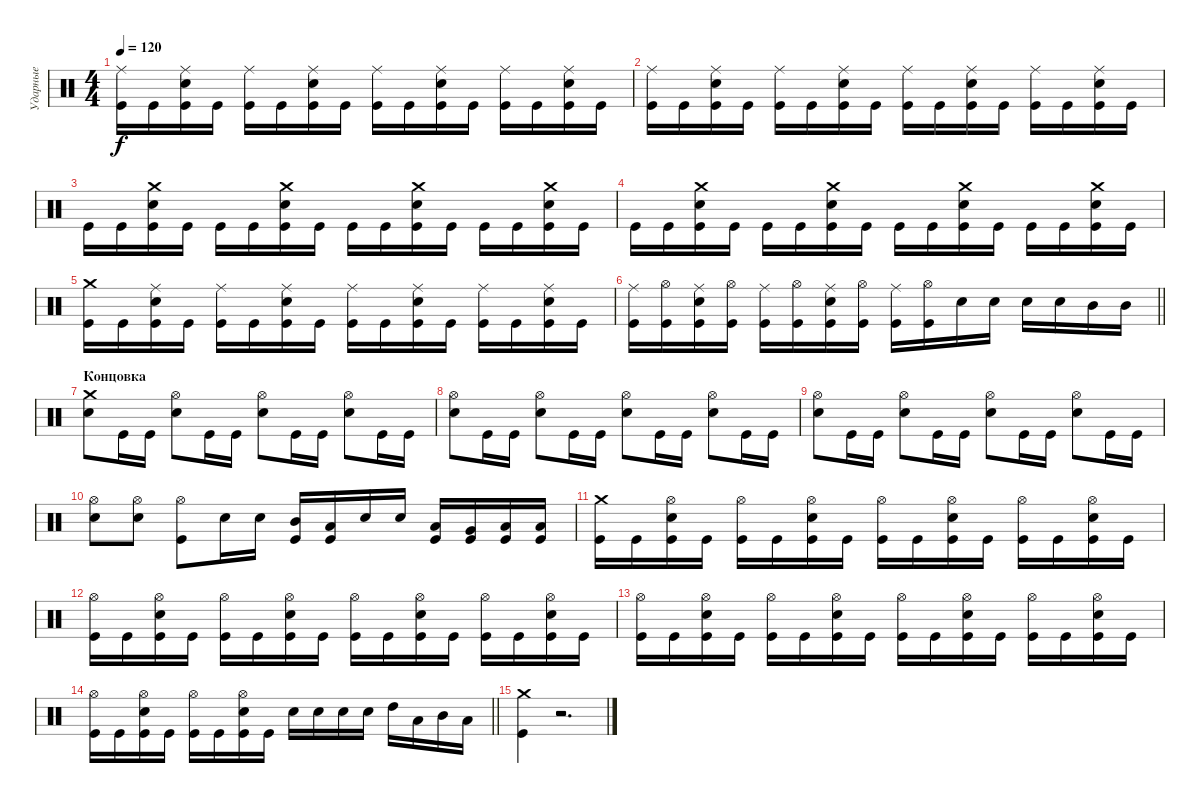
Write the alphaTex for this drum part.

\track ("Ударные" "Ударные") {instrument percussion}
\staff {score}
\articulation defaults
\ts (4 4)
\tempo 120
\clef neutral
\ks c
("Kick (hit)" "Ride (middle)").16{dy f} "Kick (hit)".16 ("Kick (hit)" "Snare (hit) 2" "Ride (middle)").16 "Kick (hit)".16 ("Kick (hit)" "Ride (middle)").16 "Kick (hit)".16 ("Kick (hit)" "Snare (hit) 2" "Ride (middle)").16 "Kick (hit)".16 ("Kick (hit)" "Ride (middle)").16 "Kick (hit)".16 ("Kick (hit)" "Snare (hit) 2" "Ride (middle)").16 "Kick (hit)".16 ("Kick (hit)" "Ride (middle)").16 "Kick (hit)".16 ("Kick (hit)" "Snare (hit) 2" "Ride (middle)").16 "Kick (hit)".16 |
("Kick (hit)" "Ride (middle)").16 "Kick (hit)".16 ("Kick (hit)" "Snare (hit) 2" "Ride (middle)").16 "Kick (hit)".16 ("Kick (hit)" "Ride (middle)").16 "Kick (hit)".16 ("Kick (hit)" "Snare (hit) 2" "Ride (middle)").16 "Kick (hit)".16 ("Kick (hit)" "Ride (middle)").16 "Kick (hit)".16 ("Kick (hit)" "Snare (hit) 2" "Ride (middle)").16 "Kick (hit)".16 ("Kick (hit)" "Ride (middle)").16 "Kick (hit)".16 ("Kick (hit)" "Snare (hit) 2" "Ride (middle)").16 "Kick (hit)".16 |
"Kick (hit)".16 "Kick (hit)".16 ("Kick (hit)" "Snare (hit) 2" "Crash medium (hit)").16 "Kick (hit)".16 "Kick (hit)".16 "Kick (hit)".16 ("Kick (hit)" "Snare (hit) 2" "Crash medium (hit)").16 "Kick (hit)".16 "Kick (hit)".16 "Kick (hit)".16 ("Kick (hit)" "Snare (hit) 2" "Crash medium (hit)").16 "Kick (hit)".16 "Kick (hit)".16 "Kick (hit)".16 ("Kick (hit)" "Snare (hit) 2" "Crash medium (hit)").16 "Kick (hit)".16 |
"Kick (hit)".16 "Kick (hit)".16 ("Kick (hit)" "Snare (hit) 2" "Crash medium (hit)").16 "Kick (hit)".16 "Kick (hit)".16 "Kick (hit)".16 ("Kick (hit)" "Snare (hit) 2" "Crash medium (hit)").16 "Kick (hit)".16 "Kick (hit)".16 "Kick (hit)".16 ("Kick (hit)" "Snare (hit) 2" "Crash medium (hit)").16 "Kick (hit)".16 "Kick (hit)".16 "Kick (hit)".16 ("Kick (hit)" "Snare (hit) 2" "Crash medium (hit)").16 "Kick (hit)".16 |
("Kick (hit)" "Crash medium (hit)").16 "Kick (hit)".16 ("Kick (hit)" "Snare (hit) 2" "Ride (middle)").16 "Kick (hit)".16 ("Kick (hit)" "Ride (middle)").16 "Kick (hit)".16 ("Kick (hit)" "Snare (hit) 2" "Ride (middle)").16 "Kick (hit)".16 ("Kick (hit)" "Ride (middle)").16 "Kick (hit)".16 ("Kick (hit)" "Snare (hit) 2" "Ride (middle)").16 "Kick (hit)".16 ("Kick (hit)" "Ride (middle)").16 "Kick (hit)".16 ("Kick (hit)" "Snare (hit) 2" "Ride (middle)").16 "Kick (hit)".16 |
\barLineRight lightlight
("Kick (hit)" "Ride (middle)").16 ("Kick (hit)" "Hi-Hat (open)").16 ("Kick (hit)" "Snare (hit) 2" "Ride (middle)").16 ("Kick (hit)" "Hi-Hat (open)").16 ("Kick (hit)" "Ride (middle)").16 ("Kick (hit)" "Hi-Hat (open)").16 ("Kick (hit)" "Snare (hit) 2" "Ride (middle)").16 ("Kick (hit)" "Hi-Hat (open)").16 ("Kick (hit)" "Ride (middle)").16 ("Kick (hit)" "Hi-Hat (open)").16 "Snare (hit) 2".16 "Snare (hit) 2".16 "Snare (hit) 2".16 "Snare (hit) 2".16 "Mid Tom (hit)".16 "Mid Tom (hit)".16 |
\section ("" "Концовка")
("Snare (hit) 2" "Crash medium (hit)").8 "Kick (hit)".16 "Kick (hit)".16 ("Snare (hit) 2" "Hi-Hat (open)").8 "Kick (hit)".16 "Kick (hit)".16 ("Snare (hit) 2" "Hi-Hat (open)").8 "Kick (hit)".16 "Kick (hit)".16 ("Snare (hit) 2" "Hi-Hat (open)").8 "Kick (hit)".16 "Kick (hit)".16 |
("Snare (hit) 2" "Hi-Hat (open)").8 "Kick (hit)".16 "Kick (hit)".16 ("Snare (hit) 2" "Hi-Hat (open)").8 "Kick (hit)".16 "Kick (hit)".16 ("Snare (hit) 2" "Hi-Hat (open)").8 "Kick (hit)".16 "Kick (hit)".16 ("Snare (hit) 2" "Hi-Hat (open)").8 "Kick (hit)".16 "Kick (hit)".16 |
("Snare (hit) 2" "Hi-Hat (open)").8 "Kick (hit)".16 "Kick (hit)".16 ("Snare (hit) 2" "Hi-Hat (open)").8 "Kick (hit)".16 "Kick (hit)".16 ("Snare (hit) 2" "Hi-Hat (open)").8 "Kick (hit)".16 "Kick (hit)".16 ("Snare (hit) 2" "Hi-Hat (open)").8 "Kick (hit)".16 "Kick (hit)".16 |
("Snare (hit) 2" "Hi-Hat (open)").8 ("Snare (hit) 2" "Hi-Hat (open)").8 ("Kick (hit)" "Hi-Hat (open)").8 "Snare (hit) 2".16 "Snare (hit) 2".16 ("Kick (hit)" "Mid Tom (hit)").16 ("Kick (hit)" "Low Tom (hit)").16 "Snare (hit) 2".16 "Snare (hit) 2".16 ("Kick (hit)" "Low Tom (hit)").16 ("Kick (hit)" "Very Low Tom (hit)").16 ("Kick (hit)" "Low Tom (hit)").16 ("Kick (hit)" "Low Floor Tom (hit)").16 |
("Kick (hit)" "Crash medium (hit)").16 "Kick (hit)".16 ("Kick (hit)" "Snare (hit) 2" "Hi-Hat (open)").16 "Kick (hit)".16 ("Kick (hit)" "Hi-Hat (open)").16 "Kick (hit)".16 ("Kick (hit)" "Snare (hit) 2" "Hi-Hat (open)").16 "Kick (hit)".16 ("Kick (hit)" "Hi-Hat (open)").16 "Kick (hit)".16 ("Kick (hit)" "Snare (hit) 2" "Hi-Hat (open)").16 "Kick (hit)".16 ("Kick (hit)" "Hi-Hat (open)").16 "Kick (hit)".16 ("Kick (hit)" "Snare (hit) 2" "Hi-Hat (open)").16 "Kick (hit)".16 |
("Kick (hit)" "Hi-Hat (open)").16 "Kick (hit)".16 ("Kick (hit)" "Snare (hit) 2" "Hi-Hat (open)").16 "Kick (hit)".16 ("Kick (hit)" "Hi-Hat (open)").16 "Kick (hit)".16 ("Kick (hit)" "Snare (hit) 2" "Hi-Hat (open)").16 "Kick (hit)".16 ("Kick (hit)" "Hi-Hat (open)").16 "Kick (hit)".16 ("Kick (hit)" "Snare (hit) 2" "Hi-Hat (open)").16 "Kick (hit)".16 ("Kick (hit)" "Hi-Hat (open)").16 "Kick (hit)".16 ("Kick (hit)" "Snare (hit) 2" "Hi-Hat (open)").16 "Kick (hit)".16 |
("Kick (hit)" "Hi-Hat (open)").16 "Kick (hit)".16 ("Kick (hit)" "Snare (hit) 2" "Hi-Hat (open)").16 "Kick (hit)".16 ("Kick (hit)" "Hi-Hat (open)").16 "Kick (hit)".16 ("Kick (hit)" "Snare (hit) 2" "Hi-Hat (open)").16 "Kick (hit)".16 ("Kick (hit)" "Hi-Hat (open)").16 "Kick (hit)".16 ("Kick (hit)" "Snare (hit) 2" "Hi-Hat (open)").16 "Kick (hit)".16 ("Kick (hit)" "Hi-Hat (open)").16 "Kick (hit)".16 ("Kick (hit)" "Snare (hit) 2" "Hi-Hat (open)").16 "Kick (hit)".16 |
\barLineRight lightlight
("Kick (hit)" "Hi-Hat (open)").16 "Kick (hit)".16 ("Kick (hit)" "Snare (hit) 2" "Hi-Hat (open)").16 "Kick (hit)".16 ("Kick (hit)" "Hi-Hat (open)").16 "Kick (hit)".16 ("Kick (hit)" "Snare (hit) 2" "Hi-Hat (open)").16 "Kick (hit)".16 "Snare (hit) 2".16 "Snare (hit) 2".16 "Snare (hit) 2".16 "Snare (hit) 2".16 "High Tom (hit)".16 "Low Tom (hit)".16 "Mid Tom (hit)".16 "Low Tom (hit)".16 |
("Kick (hit)" "Crash medium (hit)").4 r.2{d}
